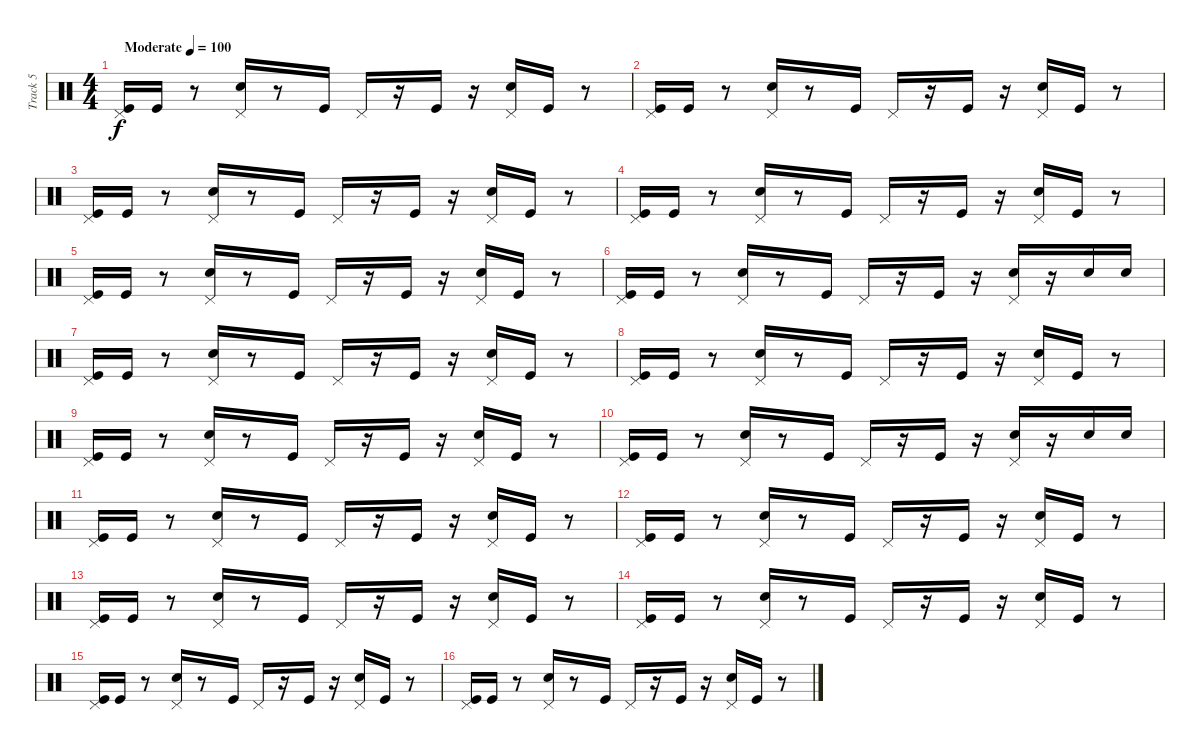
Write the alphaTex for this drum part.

\track ("Track 5" "Track 5") {instrument percussion}
\staff {score}
\articulation defaults
\ts (4 4)
\tempo (100 "Moderate")
\clef neutral
\ks c
("Kick (hit)" "Pedal Hi-Hat (hit)").16{dy f} "Kick (hit)".16 r.8 ("Snare (hit) 2" "Pedal Hi-Hat (hit)").16 r.8 "Kick (hit)".16 "Pedal Hi-Hat (hit)".16 r.16 "Kick (hit)".16 r.16 ("Snare (hit) 2" "Pedal Hi-Hat (hit)").16 "Kick (hit)".16 r.8 |
("Kick (hit)" "Pedal Hi-Hat (hit)").16 "Kick (hit)".16 r.8 ("Snare (hit) 2" "Pedal Hi-Hat (hit)").16 r.8 "Kick (hit)".16 "Pedal Hi-Hat (hit)".16 r.16 "Kick (hit)".16 r.16 ("Snare (hit) 2" "Pedal Hi-Hat (hit)").16 "Kick (hit)".16 r.8 |
("Kick (hit)" "Pedal Hi-Hat (hit)").16 "Kick (hit)".16 r.8 ("Snare (hit) 2" "Pedal Hi-Hat (hit)").16 r.8 "Kick (hit)".16 "Pedal Hi-Hat (hit)".16 r.16 "Kick (hit)".16 r.16 ("Snare (hit) 2" "Pedal Hi-Hat (hit)").16 "Kick (hit)".16 r.8 |
("Kick (hit)" "Pedal Hi-Hat (hit)").16 "Kick (hit)".16 r.8 ("Snare (hit) 2" "Pedal Hi-Hat (hit)").16 r.8 "Kick (hit)".16 "Pedal Hi-Hat (hit)".16 r.16 "Kick (hit)".16 r.16 ("Snare (hit) 2" "Pedal Hi-Hat (hit)").16 "Kick (hit)".16 r.8 |
("Kick (hit)" "Pedal Hi-Hat (hit)").16 "Kick (hit)".16 r.8 ("Snare (hit) 2" "Pedal Hi-Hat (hit)").16 r.8 "Kick (hit)".16 "Pedal Hi-Hat (hit)".16 r.16 "Kick (hit)".16 r.16 ("Snare (hit) 2" "Pedal Hi-Hat (hit)").16 "Kick (hit)".16 r.8 |
("Kick (hit)" "Pedal Hi-Hat (hit)").16 "Kick (hit)".16 r.8 ("Snare (hit) 2" "Pedal Hi-Hat (hit)").16 r.8 "Kick (hit)".16 "Pedal Hi-Hat (hit)".16 r.16 "Kick (hit)".16 r.16 ("Snare (hit) 2" "Pedal Hi-Hat (hit)").16 r.16 "Snare (hit) 2".16 "Snare (hit) 2".16 |
("Kick (hit)" "Pedal Hi-Hat (hit)").16 "Kick (hit)".16 r.8 ("Snare (hit) 2" "Pedal Hi-Hat (hit)").16 r.8 "Kick (hit)".16 "Pedal Hi-Hat (hit)".16 r.16 "Kick (hit)".16 r.16 ("Snare (hit) 2" "Pedal Hi-Hat (hit)").16 "Kick (hit)".16 r.8 |
("Kick (hit)" "Pedal Hi-Hat (hit)").16 "Kick (hit)".16 r.8 ("Snare (hit) 2" "Pedal Hi-Hat (hit)").16 r.8 "Kick (hit)".16 "Pedal Hi-Hat (hit)".16 r.16 "Kick (hit)".16 r.16 ("Snare (hit) 2" "Pedal Hi-Hat (hit)").16 "Kick (hit)".16 r.8 |
("Kick (hit)" "Pedal Hi-Hat (hit)").16 "Kick (hit)".16 r.8 ("Snare (hit) 2" "Pedal Hi-Hat (hit)").16 r.8 "Kick (hit)".16 "Pedal Hi-Hat (hit)".16 r.16 "Kick (hit)".16 r.16 ("Snare (hit) 2" "Pedal Hi-Hat (hit)").16 "Kick (hit)".16 r.8 |
("Kick (hit)" "Pedal Hi-Hat (hit)").16 "Kick (hit)".16 r.8 ("Snare (hit) 2" "Pedal Hi-Hat (hit)").16 r.8 "Kick (hit)".16 "Pedal Hi-Hat (hit)".16 r.16 "Kick (hit)".16 r.16 ("Snare (hit) 2" "Pedal Hi-Hat (hit)").16 r.16 "Snare (hit) 2".16 "Snare (hit) 2".16 |
("Kick (hit)" "Pedal Hi-Hat (hit)").16 "Kick (hit)".16 r.8 ("Snare (hit) 2" "Pedal Hi-Hat (hit)").16 r.8 "Kick (hit)".16 "Pedal Hi-Hat (hit)".16 r.16 "Kick (hit)".16 r.16 ("Snare (hit) 2" "Pedal Hi-Hat (hit)").16 "Kick (hit)".16 r.8 |
("Kick (hit)" "Pedal Hi-Hat (hit)").16 "Kick (hit)".16 r.8 ("Snare (hit) 2" "Pedal Hi-Hat (hit)").16 r.8 "Kick (hit)".16 "Pedal Hi-Hat (hit)".16 r.16 "Kick (hit)".16 r.16 ("Snare (hit) 2" "Pedal Hi-Hat (hit)").16 "Kick (hit)".16 r.8 |
("Kick (hit)" "Pedal Hi-Hat (hit)").16 "Kick (hit)".16 r.8 ("Snare (hit) 2" "Pedal Hi-Hat (hit)").16 r.8 "Kick (hit)".16 "Pedal Hi-Hat (hit)".16 r.16 "Kick (hit)".16 r.16 ("Snare (hit) 2" "Pedal Hi-Hat (hit)").16 "Kick (hit)".16 r.8 |
("Kick (hit)" "Pedal Hi-Hat (hit)").16 "Kick (hit)".16 r.8 ("Snare (hit) 2" "Pedal Hi-Hat (hit)").16 r.8 "Kick (hit)".16 "Pedal Hi-Hat (hit)".16 r.16 "Kick (hit)".16 r.16 ("Snare (hit) 2" "Pedal Hi-Hat (hit)").16 "Kick (hit)".16 r.8 |
("Kick (hit)" "Pedal Hi-Hat (hit)").16 "Kick (hit)".16 r.8 ("Snare (hit) 2" "Pedal Hi-Hat (hit)").16 r.8 "Kick (hit)".16 "Pedal Hi-Hat (hit)".16 r.16 "Kick (hit)".16 r.16 ("Snare (hit) 2" "Pedal Hi-Hat (hit)").16 "Kick (hit)".16 r.8 |
("Kick (hit)" "Pedal Hi-Hat (hit)").16 "Kick (hit)".16 r.8 ("Snare (hit) 2" "Pedal Hi-Hat (hit)").16 r.8 "Kick (hit)".16 "Pedal Hi-Hat (hit)".16 r.16 "Kick (hit)".16 r.16 ("Snare (hit) 2" "Pedal Hi-Hat (hit)").16 "Kick (hit)".16 r.8
